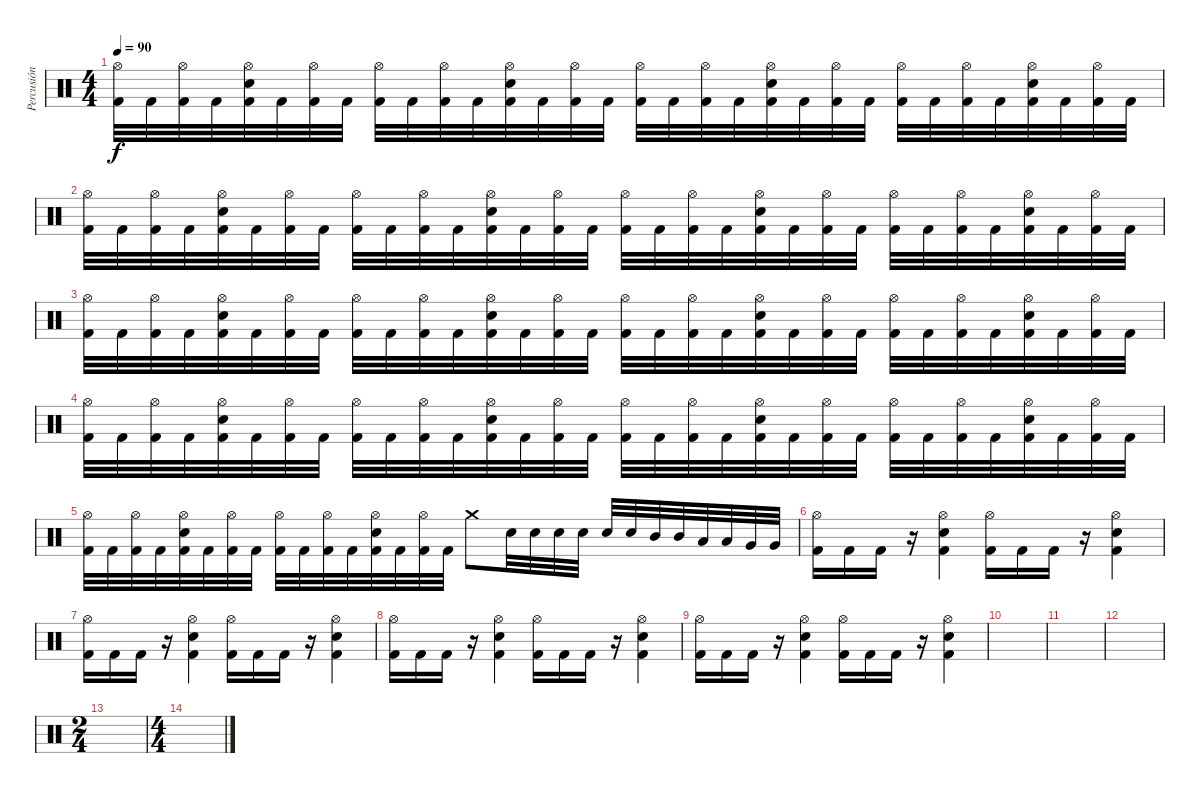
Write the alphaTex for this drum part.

\track ("Percusión" "Percusión") {instrument percussion}
\staff {score}
\articulation defaults
\ts (4 4)
\tempo 90
\clef neutral
\ks c
("Hi-Hat (open)" "Kick (hit) 2").32{dy f} "Kick (hit) 2".32 ("Hi-Hat (open)" "Kick (hit) 2").32 "Kick (hit) 2".32 ("Hi-Hat (open)" "Electric Snare (hit)" "Kick (hit) 2").32 "Kick (hit) 2".32 ("Hi-Hat (open)" "Kick (hit) 2").32 "Kick (hit) 2".32 ("Hi-Hat (open)" "Kick (hit) 2").32 "Kick (hit) 2".32 ("Hi-Hat (open)" "Kick (hit) 2").32 "Kick (hit) 2".32 ("Hi-Hat (open)" "Electric Snare (hit)" "Kick (hit) 2").32 "Kick (hit) 2".32 ("Hi-Hat (open)" "Kick (hit) 2").32 "Kick (hit) 2".32 ("Hi-Hat (open)" "Kick (hit) 2").32 "Kick (hit) 2".32 ("Hi-Hat (open)" "Kick (hit) 2").32 "Kick (hit) 2".32 ("Hi-Hat (open)" "Electric Snare (hit)" "Kick (hit) 2").32 "Kick (hit) 2".32 ("Hi-Hat (open)" "Kick (hit) 2").32 "Kick (hit) 2".32 ("Hi-Hat (open)" "Kick (hit) 2").32 "Kick (hit) 2".32 ("Hi-Hat (open)" "Kick (hit) 2").32 "Kick (hit) 2".32 ("Hi-Hat (open)" "Electric Snare (hit)" "Kick (hit) 2").32 "Kick (hit) 2".32 ("Hi-Hat (open)" "Kick (hit) 2").32 "Kick (hit) 2".32 |
("Hi-Hat (open)" "Kick (hit) 2").32 "Kick (hit) 2".32 ("Hi-Hat (open)" "Kick (hit) 2").32 "Kick (hit) 2".32 ("Hi-Hat (open)" "Electric Snare (hit)" "Kick (hit) 2").32 "Kick (hit) 2".32 ("Hi-Hat (open)" "Kick (hit) 2").32 "Kick (hit) 2".32 ("Hi-Hat (open)" "Kick (hit) 2").32 "Kick (hit) 2".32 ("Hi-Hat (open)" "Kick (hit) 2").32 "Kick (hit) 2".32 ("Hi-Hat (open)" "Electric Snare (hit)" "Kick (hit) 2").32 "Kick (hit) 2".32 ("Hi-Hat (open)" "Kick (hit) 2").32 "Kick (hit) 2".32 ("Hi-Hat (open)" "Kick (hit) 2").32 "Kick (hit) 2".32 ("Hi-Hat (open)" "Kick (hit) 2").32 "Kick (hit) 2".32 ("Hi-Hat (open)" "Electric Snare (hit)" "Kick (hit) 2").32 "Kick (hit) 2".32 ("Hi-Hat (open)" "Kick (hit) 2").32 "Kick (hit) 2".32 ("Hi-Hat (open)" "Kick (hit) 2").32 "Kick (hit) 2".32 ("Hi-Hat (open)" "Kick (hit) 2").32 "Kick (hit) 2".32 ("Hi-Hat (open)" "Electric Snare (hit)" "Kick (hit) 2").32 "Kick (hit) 2".32 ("Hi-Hat (open)" "Kick (hit) 2").32 "Kick (hit) 2".32 |
("Hi-Hat (open)" "Kick (hit) 2").32 "Kick (hit) 2".32 ("Hi-Hat (open)" "Kick (hit) 2").32 "Kick (hit) 2".32 ("Hi-Hat (open)" "Electric Snare (hit)" "Kick (hit) 2").32 "Kick (hit) 2".32 ("Hi-Hat (open)" "Kick (hit) 2").32 "Kick (hit) 2".32 ("Hi-Hat (open)" "Kick (hit) 2").32 "Kick (hit) 2".32 ("Hi-Hat (open)" "Kick (hit) 2").32 "Kick (hit) 2".32 ("Hi-Hat (open)" "Electric Snare (hit)" "Kick (hit) 2").32 "Kick (hit) 2".32 ("Hi-Hat (open)" "Kick (hit) 2").32 "Kick (hit) 2".32 ("Hi-Hat (open)" "Kick (hit) 2").32 "Kick (hit) 2".32 ("Hi-Hat (open)" "Kick (hit) 2").32 "Kick (hit) 2".32 ("Hi-Hat (open)" "Electric Snare (hit)" "Kick (hit) 2").32 "Kick (hit) 2".32 ("Hi-Hat (open)" "Kick (hit) 2").32 "Kick (hit) 2".32 ("Hi-Hat (open)" "Kick (hit) 2").32 "Kick (hit) 2".32 ("Hi-Hat (open)" "Kick (hit) 2").32 "Kick (hit) 2".32 ("Hi-Hat (open)" "Electric Snare (hit)" "Kick (hit) 2").32 "Kick (hit) 2".32 ("Hi-Hat (open)" "Kick (hit) 2").32 "Kick (hit) 2".32 |
("Hi-Hat (open)" "Kick (hit) 2").32 "Kick (hit) 2".32 ("Hi-Hat (open)" "Kick (hit) 2").32 "Kick (hit) 2".32 ("Hi-Hat (open)" "Electric Snare (hit)" "Kick (hit) 2").32 "Kick (hit) 2".32 ("Hi-Hat (open)" "Kick (hit) 2").32 "Kick (hit) 2".32 ("Hi-Hat (open)" "Kick (hit) 2").32 "Kick (hit) 2".32 ("Hi-Hat (open)" "Kick (hit) 2").32 "Kick (hit) 2".32 ("Hi-Hat (open)" "Electric Snare (hit)" "Kick (hit) 2").32 "Kick (hit) 2".32 ("Hi-Hat (open)" "Kick (hit) 2").32 "Kick (hit) 2".32 ("Hi-Hat (open)" "Kick (hit) 2").32 "Kick (hit) 2".32 ("Hi-Hat (open)" "Kick (hit) 2").32 "Kick (hit) 2".32 ("Hi-Hat (open)" "Electric Snare (hit)" "Kick (hit) 2").32 "Kick (hit) 2".32 ("Hi-Hat (open)" "Kick (hit) 2").32 "Kick (hit) 2".32 ("Hi-Hat (open)" "Kick (hit) 2").32 "Kick (hit) 2".32 ("Hi-Hat (open)" "Kick (hit) 2").32 "Kick (hit) 2".32 ("Hi-Hat (open)" "Electric Snare (hit)" "Kick (hit) 2").32 "Kick (hit) 2".32 ("Hi-Hat (open)" "Kick (hit) 2").32 "Kick (hit) 2".32 |
("Hi-Hat (open)" "Kick (hit) 2").32 "Kick (hit) 2".32 ("Hi-Hat (open)" "Kick (hit) 2").32 "Kick (hit) 2".32 ("Hi-Hat (open)" "Electric Snare (hit)" "Kick (hit) 2").32 "Kick (hit) 2".32 ("Hi-Hat (open)" "Kick (hit) 2").32 "Kick (hit) 2".32 ("Hi-Hat (open)" "Kick (hit) 2").32 "Kick (hit) 2".32 ("Hi-Hat (open)" "Kick (hit) 2").32 "Kick (hit) 2".32 ("Hi-Hat (open)" "Electric Snare (hit)" "Kick (hit) 2").32 "Kick (hit) 2".32 ("Hi-Hat (open)" "Kick (hit) 2").32 "Kick (hit) 2".32 "Crash medium (hit)".8 "Electric Snare (hit)".32 "Electric Snare (hit)".32 "Electric Snare (hit)".32 "Electric Snare (hit)".32 "Electric Snare (hit)".32 "Electric Snare (hit)".32 "Mid Tom (hit)".32 "Mid Tom (hit)".32 "Low Tom (hit)".32 "Low Tom (hit)".32 "Very Low Tom (hit)".32 "Very Low Tom (hit)".32 |
("Hi-Hat (open)" "Kick (hit) 2").16 "Kick (hit) 2".16 "Kick (hit) 2".16 r.16 ("Hi-Hat (open)" "Electric Snare (hit)" "Kick (hit) 2").4 ("Hi-Hat (open)" "Kick (hit) 2").16 "Kick (hit) 2".16 "Kick (hit) 2".16 r.16 ("Hi-Hat (open)" "Electric Snare (hit)" "Kick (hit) 2").4 |
("Hi-Hat (open)" "Kick (hit) 2").16 "Kick (hit) 2".16 "Kick (hit) 2".16 r.16 ("Hi-Hat (open)" "Electric Snare (hit)" "Kick (hit) 2").4 ("Hi-Hat (open)" "Kick (hit) 2").16 "Kick (hit) 2".16 "Kick (hit) 2".16 r.16 ("Hi-Hat (open)" "Electric Snare (hit)" "Kick (hit) 2").4 |
("Hi-Hat (open)" "Kick (hit) 2").16 "Kick (hit) 2".16 "Kick (hit) 2".16 r.16 ("Hi-Hat (open)" "Electric Snare (hit)" "Kick (hit) 2").4 ("Hi-Hat (open)" "Kick (hit) 2").16 "Kick (hit) 2".16 "Kick (hit) 2".16 r.16 ("Hi-Hat (open)" "Electric Snare (hit)" "Kick (hit) 2").4 |
("Hi-Hat (open)" "Kick (hit) 2").16 "Kick (hit) 2".16 "Kick (hit) 2".16 r.16 ("Hi-Hat (open)" "Electric Snare (hit)" "Kick (hit) 2").4 ("Hi-Hat (open)" "Kick (hit) 2").16 "Kick (hit) 2".16 "Kick (hit) 2".16 r.16 ("Hi-Hat (open)" "Electric Snare (hit)" "Kick (hit) 2").4 |
|
|
|
\ts (2 4)
|
\ts (4 4)
